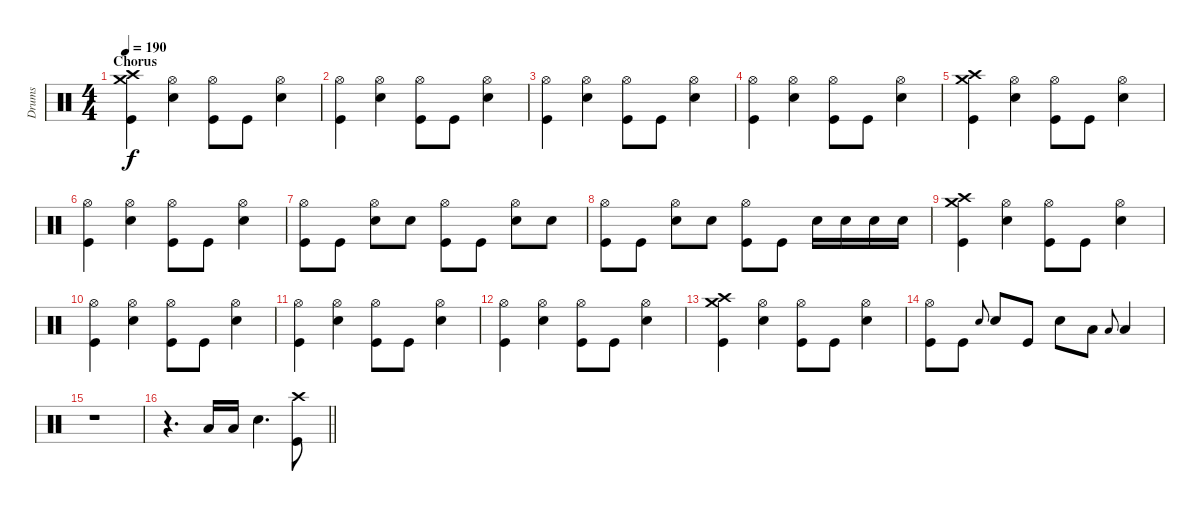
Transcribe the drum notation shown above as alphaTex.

\track ("Drums" "Drums") {instrument percussion}
\staff {score}
\articulation defaults
\ts (4 4)
\section ("" "Chorus")
\tempo 190
\clef neutral
\ks c
("Crash high (hit)" "Crash medium (hit)" "Kick (hit)").4{dy f} ("Hi-Hat (open)" "Snare (hit) 2").4 ("Hi-Hat (open)" "Kick (hit)").8 "Kick (hit)".8 ("Hi-Hat (open)" "Snare (hit) 2").4 |
("Hi-Hat (open)" "Kick (hit)").4 ("Hi-Hat (open)" "Snare (hit) 2").4 ("Hi-Hat (open)" "Kick (hit)").8 "Kick (hit)".8 ("Hi-Hat (open)" "Snare (hit) 2").4 |
("Hi-Hat (open)" "Kick (hit)").4 ("Hi-Hat (open)" "Snare (hit) 2").4 ("Hi-Hat (open)" "Kick (hit)").8 "Kick (hit)".8 ("Hi-Hat (open)" "Snare (hit) 2").4 |
("Hi-Hat (open)" "Kick (hit)").4 ("Hi-Hat (open)" "Snare (hit) 2").4 ("Hi-Hat (open)" "Kick (hit)").8 "Kick (hit)".8 ("Hi-Hat (open)" "Snare (hit) 2").4 |
("Crash high (hit)" "Crash medium (hit)" "Kick (hit)").4 ("Hi-Hat (open)" "Snare (hit) 2").4 ("Hi-Hat (open)" "Kick (hit)").8 "Kick (hit)".8 ("Hi-Hat (open)" "Snare (hit) 2").4 |
("Hi-Hat (open)" "Kick (hit)").4 ("Hi-Hat (open)" "Snare (hit) 2").4 ("Hi-Hat (open)" "Kick (hit)").8 "Kick (hit)".8 ("Hi-Hat (open)" "Snare (hit) 2").4 |
("Hi-Hat (open)" "Kick (hit)").8 "Kick (hit)".8 ("Hi-Hat (open)" "Snare (hit) 2").8 "Snare (hit) 2".8 ("Hi-Hat (open)" "Kick (hit)").8 "Kick (hit)".8 ("Hi-Hat (open)" "Snare (hit) 2").8 "Snare (hit) 2".8 |
("Hi-Hat (open)" "Kick (hit)").8 "Kick (hit)".8 ("Hi-Hat (open)" "Snare (hit) 2").8 "Snare (hit) 2".8 ("Hi-Hat (open)" "Kick (hit)").8 "Kick (hit)".8 "Snare (hit) 2".16 "Snare (hit) 2".16 "Snare (hit) 2".16 "Snare (hit) 2".16 |
("Crash high (hit)" "Crash medium (hit)" "Kick (hit)").4 ("Hi-Hat (open)" "Snare (hit) 2").4 ("Hi-Hat (open)" "Kick (hit)").8 "Kick (hit)".8 ("Hi-Hat (open)" "Snare (hit) 2").4 |
("Hi-Hat (open)" "Kick (hit)").4 ("Hi-Hat (open)" "Snare (hit) 2").4 ("Hi-Hat (open)" "Kick (hit)").8 "Kick (hit)".8 ("Hi-Hat (open)" "Snare (hit) 2").4 |
("Hi-Hat (open)" "Kick (hit)").4 ("Hi-Hat (open)" "Snare (hit) 2").4 ("Hi-Hat (open)" "Kick (hit)").8 "Kick (hit)".8 ("Hi-Hat (open)" "Snare (hit) 2").4 |
("Hi-Hat (open)" "Kick (hit)").4 ("Hi-Hat (open)" "Snare (hit) 2").4 ("Hi-Hat (open)" "Kick (hit)").8 "Kick (hit)".8 ("Hi-Hat (open)" "Snare (hit) 2").4 |
("Crash high (hit)" "Crash medium (hit)" "Kick (hit)").4 ("Hi-Hat (open)" "Snare (hit) 2").4 ("Hi-Hat (open)" "Kick (hit)").8 "Kick (hit)".8 ("Hi-Hat (open)" "Snare (hit) 2").4 |
("Hi-Hat (open)" "Kick (hit)").8 "Kick (hit)".8 "Snare (hit) 2".8{gr onbeat} "Snare (hit) 2".8 "Kick (hit)".8 "Snare (hit) 2".8 "Low Tom (hit)".8 "Low Floor Tom (hit)".8{gr onbeat} "Low Floor Tom (hit)".4 |
r.1 |
\barLineRight lightlight
r.4{d} "Low Floor Tom (hit)".16 "Low Floor Tom (hit)".16 "Snare (hit) 2".4{d} ("Crash high (hit)" "Kick (hit)").8
